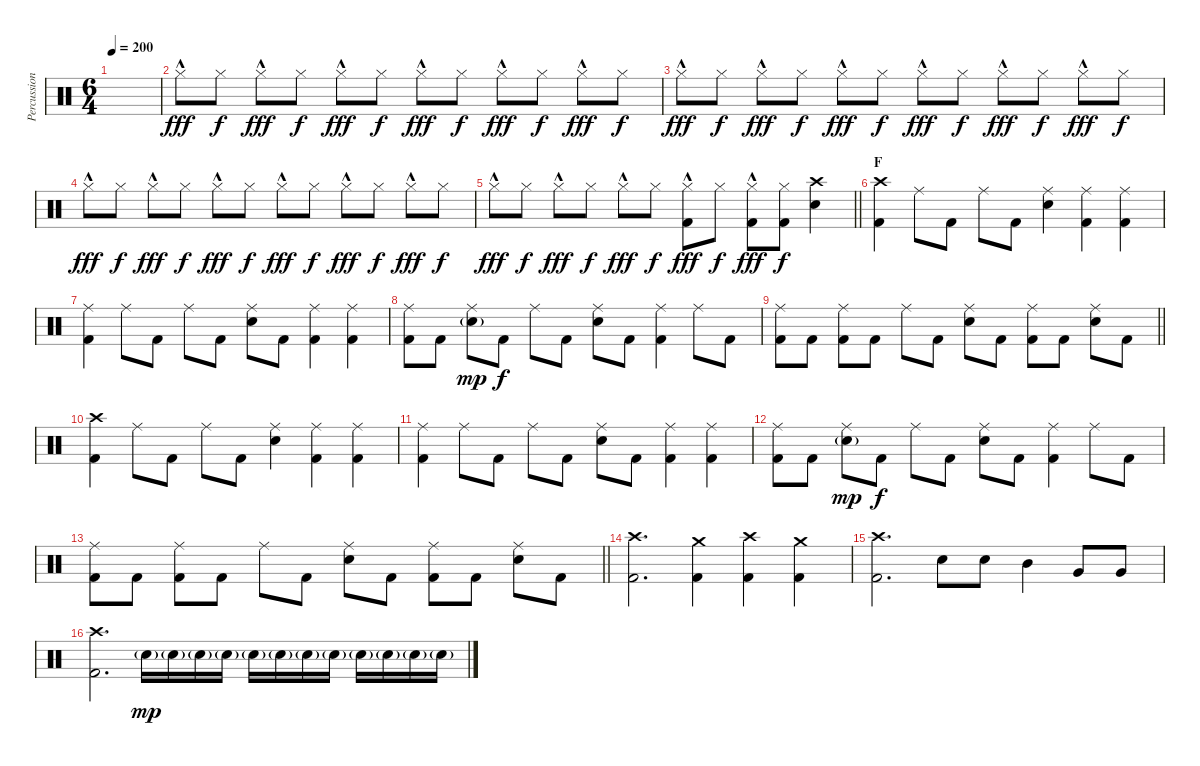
\track ("Percussion" "Percussion") {instrument percussion}
\staff {score}
\articulation defaults
\ts (6 4)
\tempo 200
\clef neutral
\ks c
|
"Hi-Hat (closed)"{hac}.8{dy fff} "Hi-Hat (closed)".8{dy f} "Hi-Hat (closed)"{hac}.8{dy fff} "Hi-Hat (closed)".8{dy f} "Hi-Hat (closed)"{hac}.8{dy fff} "Hi-Hat (closed)".8{dy f} "Hi-Hat (closed)"{hac}.8{dy fff} "Hi-Hat (closed)".8{dy f} "Hi-Hat (closed)"{hac}.8{dy fff} "Hi-Hat (closed)".8{dy f} "Hi-Hat (closed)"{hac}.8{dy fff} "Hi-Hat (closed)".8{dy f} |
"Hi-Hat (closed)"{hac}.8{dy fff} "Hi-Hat (closed)".8{dy f} "Hi-Hat (closed)"{hac}.8{dy fff} "Hi-Hat (closed)".8{dy f} "Hi-Hat (closed)"{hac}.8{dy fff} "Hi-Hat (closed)".8{dy f} "Hi-Hat (closed)"{hac}.8{dy fff} "Hi-Hat (closed)".8{dy f} "Hi-Hat (closed)"{hac}.8{dy fff} "Hi-Hat (closed)".8{dy f} "Hi-Hat (closed)"{hac}.8{dy fff} "Hi-Hat (closed)".8{dy f} |
"Hi-Hat (closed)"{hac}.8{dy fff} "Hi-Hat (closed)".8{dy f} "Hi-Hat (closed)"{hac}.8{dy fff} "Hi-Hat (closed)".8{dy f} "Hi-Hat (closed)"{hac}.8{dy fff} "Hi-Hat (closed)".8{dy f} "Hi-Hat (closed)"{hac}.8{dy fff} "Hi-Hat (closed)".8{dy f} "Hi-Hat (closed)"{hac}.8{dy fff} "Hi-Hat (closed)".8{dy f} "Hi-Hat (closed)"{hac}.8{dy fff} "Hi-Hat (closed)".8{dy f} |
\barLineRight lightlight "Hi-Hat (closed)"{hac}.8{dy fff} "Hi-Hat (closed)".8{dy f} "Hi-Hat (closed)"{hac}.8{dy fff} "Hi-Hat (closed)".8{dy f} "Hi-Hat (closed)"{hac}.8{dy fff} "Hi-Hat (closed)".8{dy f}
("Hi-Hat (closed)"{hac} "Kick (hit) 2").8{dy fff} "Hi-Hat (closed)".8{dy f} ("Hi-Hat (closed)"{hac} "Kick (hit) 2").8{dy fff} ("Hi-Hat (closed)" "Kick (hit) 2").8{dy f} ("Crash high (hit)" "Electric Snare (hit)").4 |
\section ("" "F")
("Crash high (hit)" "Kick (hit) 2").4 "Ride (middle)".8 "Kick (hit) 2".8 "Ride (middle)".8 "Kick (hit) 2".8 ("Ride (middle)" "Electric Snare (hit)").4 ("Ride (middle)" "Kick (hit) 2").4 ("Ride (middle)" "Kick (hit) 2").4 |
("Ride (middle)" "Kick (hit) 2").4 "Ride (middle)".8 "Kick (hit) 2".8 "Ride (middle)".8 "Kick (hit) 2".8 ("Ride (middle)" "Electric Snare (hit)").8 "Kick (hit) 2".8 ("Ride (middle)" "Kick (hit) 2").4 ("Ride (middle)" "Kick (hit) 2").4 |
("Ride (middle)" "Kick (hit) 2").8 "Kick (hit) 2".8 ("Ride (middle)" "Electric Snare (hit)"{g}).8{dy mp} "Kick (hit) 2".8{dy f} "Ride (middle)".8 "Kick (hit) 2".8 ("Ride (middle)" "Electric Snare (hit)").8 "Kick (hit) 2".8 ("Ride (middle)" "Kick (hit) 2").4 "Ride (middle)".8 "Kick (hit) 2".8 |
\barLineRight lightlight
("Ride (middle)" "Kick (hit) 2").8 "Kick (hit) 2".8 ("Ride (middle)" "Kick (hit) 2").8 "Kick (hit) 2".8 "Ride (middle)".8 "Kick (hit) 2".8 ("Ride (middle)" "Electric Snare (hit)").8 "Kick (hit) 2".8 ("Ride (middle)" "Kick (hit) 2").8 "Kick (hit) 2".8 ("Ride (middle)" "Electric Snare (hit)").8 "Kick (hit) 2".8 |
("Crash high (hit)" "Kick (hit) 2").4 "Ride (middle)".8 "Kick (hit) 2".8 "Ride (middle)".8 "Kick (hit) 2".8 ("Ride (middle)" "Electric Snare (hit)").4 ("Ride (middle)" "Kick (hit) 2").4 ("Ride (middle)" "Kick (hit) 2").4 |
("Ride (middle)" "Kick (hit) 2").4 "Ride (middle)".8 "Kick (hit) 2".8 "Ride (middle)".8 "Kick (hit) 2".8 ("Ride (middle)" "Electric Snare (hit)").8 "Kick (hit) 2".8 ("Ride (middle)" "Kick (hit) 2").4 ("Ride (middle)" "Kick (hit) 2").4 |
("Ride (middle)" "Kick (hit) 2").8 "Kick (hit) 2".8 ("Ride (middle)" "Electric Snare (hit)"{g}).8{dy mp} "Kick (hit) 2".8{dy f} "Ride (middle)".8 "Kick (hit) 2".8 ("Ride (middle)" "Electric Snare (hit)").8 "Kick (hit) 2".8 ("Ride (middle)" "Kick (hit) 2").4 "Ride (middle)".8 "Kick (hit) 2".8 |
\barLineRight lightlight
("Ride (middle)" "Kick (hit) 2").8 "Kick (hit) 2".8 ("Ride (middle)" "Kick (hit) 2").8 "Kick (hit) 2".8 "Ride (middle)".8 "Kick (hit) 2".8 ("Ride (middle)" "Electric Snare (hit)").8 "Kick (hit) 2".8 ("Ride (middle)" "Kick (hit) 2").8 "Kick (hit) 2".8 ("Ride (middle)" "Electric Snare (hit)").8 "Kick (hit) 2".8 |
("Crash high (hit)" "Kick (hit) 2").2{d} ("Crash medium (hit)" "Kick (hit) 2").4 ("Crash high (hit)" "Kick (hit) 2").4 ("Crash medium (hit)" "Kick (hit) 2").4 |
("Crash high (hit)" "Kick (hit) 2").2{d} "Electric Snare (hit)".8 "Electric Snare (hit)".8 "Mid Tom (hit)".4 "Very Low Tom (hit)".8 "Very Low Tom (hit)".8 |
("Crash high (hit)" "Kick (hit) 2").2{d} "Electric Snare (hit)"{g}.16{dy mp} "Electric Snare (hit)"{g}.16 "Electric Snare (hit)"{g}.16 "Electric Snare (hit)"{g}.16 "Electric Snare (hit)"{g}.16 "Electric Snare (hit)"{g}.16 "Electric Snare (hit)"{g}.16 "Electric Snare (hit)"{g}.16 "Electric Snare (hit)"{g}.16 "Electric Snare (hit)"{g}.16 "Electric Snare (hit)"{g}.16 "Electric Snare (hit)"{g}.16
